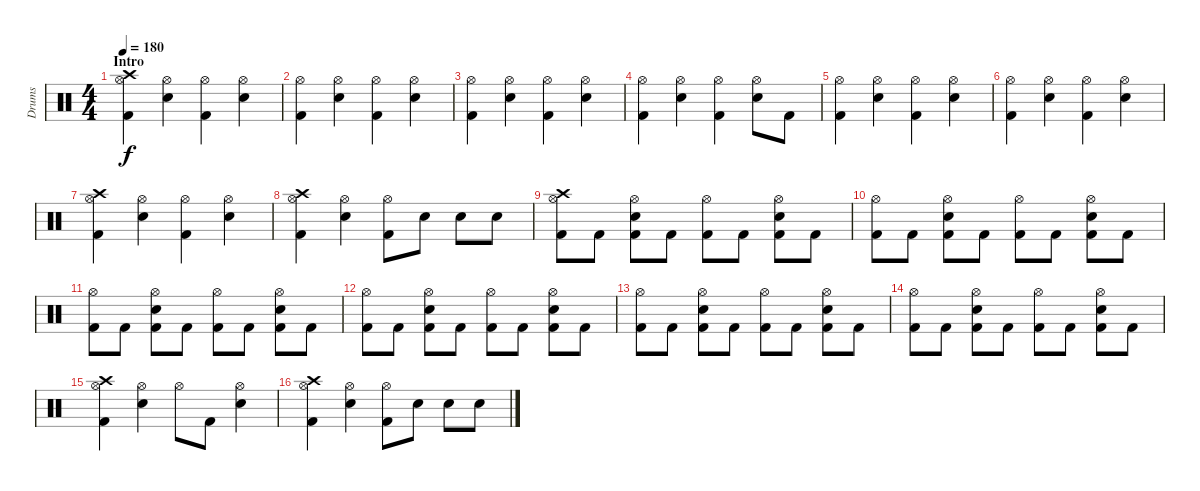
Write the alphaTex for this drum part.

\track ("Drums" "Drums") {instrument percussion}
\staff {score}
\articulation defaults
\ts (4 4)
\section ("" "Intro")
\tempo 180
\clef neutral
\ks c
("Hi-Hat (open)" "Kick (hit) 2" "Crash high (hit)").4{dy f} ("Hi-Hat (open)" "Electric Snare (hit)").4 ("Hi-Hat (open)" "Kick (hit) 2").4 ("Hi-Hat (open)" "Electric Snare (hit)").4 |
("Hi-Hat (open)" "Kick (hit) 2").4 ("Hi-Hat (open)" "Electric Snare (hit)").4 ("Hi-Hat (open)" "Kick (hit) 2").4 ("Hi-Hat (open)" "Electric Snare (hit)").4 |
("Hi-Hat (open)" "Kick (hit) 2").4 ("Hi-Hat (open)" "Electric Snare (hit)").4 ("Hi-Hat (open)" "Kick (hit) 2").4 ("Hi-Hat (open)" "Electric Snare (hit)").4 |
("Hi-Hat (open)" "Kick (hit) 2").4 ("Hi-Hat (open)" "Electric Snare (hit)").4 ("Hi-Hat (open)" "Kick (hit) 2").4 ("Hi-Hat (open)" "Electric Snare (hit)").8 "Kick (hit) 2".8 |
("Hi-Hat (open)" "Kick (hit) 2").4 ("Hi-Hat (open)" "Electric Snare (hit)").4 ("Hi-Hat (open)" "Kick (hit) 2").4 ("Hi-Hat (open)" "Electric Snare (hit)").4 |
("Hi-Hat (open)" "Kick (hit) 2").4 ("Hi-Hat (open)" "Electric Snare (hit)").4 ("Hi-Hat (open)" "Kick (hit) 2").4 ("Hi-Hat (open)" "Electric Snare (hit)").4 |
("Hi-Hat (open)" "Kick (hit) 2" "Crash high (hit)").4 ("Hi-Hat (open)" "Electric Snare (hit)").4 ("Hi-Hat (open)" "Kick (hit) 2").4 ("Hi-Hat (open)" "Electric Snare (hit)").4 |
("Hi-Hat (open)" "Kick (hit) 2" "Crash high (hit)").4 ("Hi-Hat (open)" "Electric Snare (hit)").4 ("Hi-Hat (open)" "Kick (hit) 2").8 "Electric Snare (hit)".8 "Electric Snare (hit)".8 "Electric Snare (hit)".8 |
("Kick (hit) 2" "Crash high (hit)" "Hi-Hat (open)").8 "Kick (hit) 2".8 ("Kick (hit) 2" "Electric Snare (hit)" "Hi-Hat (open)").8 "Kick (hit) 2".8 ("Kick (hit) 2" "Hi-Hat (open)").8 "Kick (hit) 2".8 ("Kick (hit) 2" "Electric Snare (hit)" "Hi-Hat (open)").8 "Kick (hit) 2".8 |
("Kick (hit) 2" "Hi-Hat (open)").8 "Kick (hit) 2".8 ("Kick (hit) 2" "Electric Snare (hit)" "Hi-Hat (open)").8 "Kick (hit) 2".8 ("Kick (hit) 2" "Hi-Hat (open)").8 "Kick (hit) 2".8 ("Kick (hit) 2" "Electric Snare (hit)" "Hi-Hat (open)").8 "Kick (hit) 2".8 |
("Kick (hit) 2" "Hi-Hat (open)").8 "Kick (hit) 2".8 ("Kick (hit) 2" "Electric Snare (hit)" "Hi-Hat (open)").8 "Kick (hit) 2".8 ("Kick (hit) 2" "Hi-Hat (open)").8 "Kick (hit) 2".8 ("Kick (hit) 2" "Electric Snare (hit)" "Hi-Hat (open)").8 "Kick (hit) 2".8 |
("Kick (hit) 2" "Hi-Hat (open)").8 "Kick (hit) 2".8 ("Kick (hit) 2" "Electric Snare (hit)" "Hi-Hat (open)").8 "Kick (hit) 2".8 ("Kick (hit) 2" "Hi-Hat (open)").8 "Kick (hit) 2".8 ("Kick (hit) 2" "Electric Snare (hit)" "Hi-Hat (open)").8 "Kick (hit) 2".8 |
("Kick (hit) 2" "Hi-Hat (open)").8 "Kick (hit) 2".8 ("Kick (hit) 2" "Electric Snare (hit)" "Hi-Hat (open)").8 "Kick (hit) 2".8 ("Kick (hit) 2" "Hi-Hat (open)").8 "Kick (hit) 2".8 ("Kick (hit) 2" "Electric Snare (hit)" "Hi-Hat (open)").8 "Kick (hit) 2".8 |
("Kick (hit) 2" "Hi-Hat (open)").8 "Kick (hit) 2".8 ("Kick (hit) 2" "Electric Snare (hit)" "Hi-Hat (open)").8 "Kick (hit) 2".8 ("Kick (hit) 2" "Hi-Hat (open)").8 "Kick (hit) 2".8 ("Kick (hit) 2" "Electric Snare (hit)" "Hi-Hat (open)").8 "Kick (hit) 2".8 |
("Hi-Hat (open)" "Kick (hit) 2" "Crash high (hit)").4 ("Hi-Hat (open)" "Electric Snare (hit)").4 "Hi-Hat (open)".8 "Kick (hit) 2".8 ("Hi-Hat (open)" "Electric Snare (hit)").4 |
("Hi-Hat (open)" "Kick (hit) 2" "Crash high (hit)").4 ("Hi-Hat (open)" "Electric Snare (hit)").4 ("Hi-Hat (open)" "Kick (hit) 2").8 "Electric Snare (hit)".8 "Electric Snare (hit)".8 "Electric Snare (hit)".8
